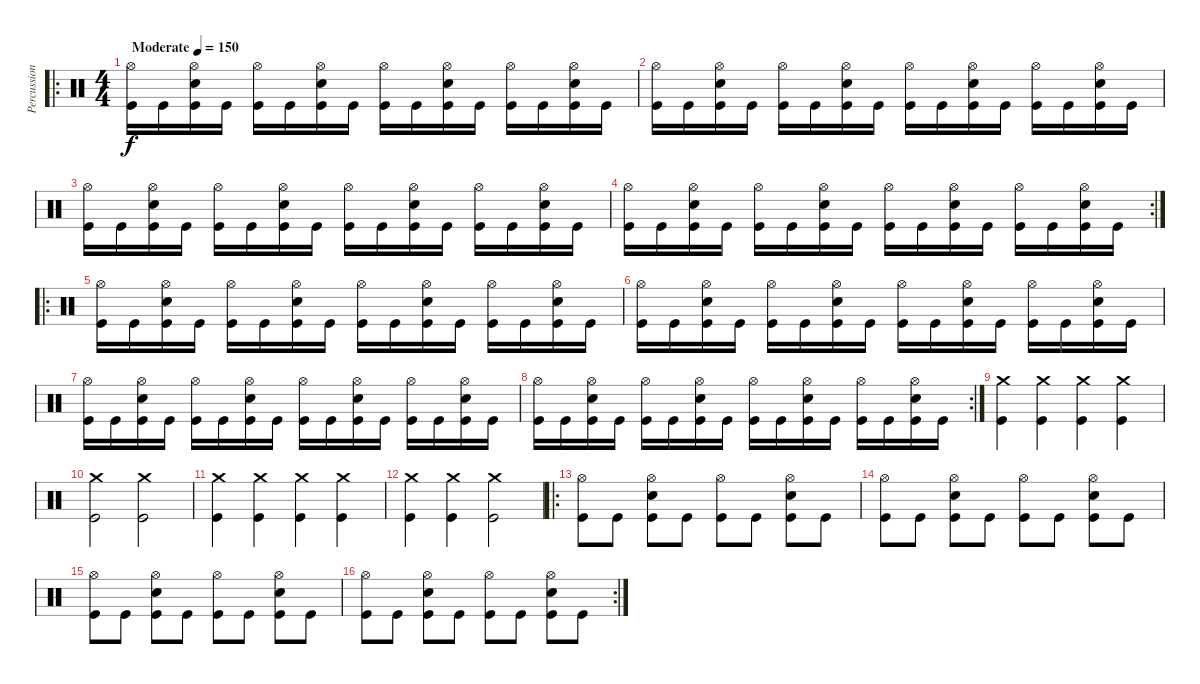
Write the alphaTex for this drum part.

\track ("Percussion" "Percussion") {instrument percussion}
\staff {score}
\articulation defaults
\ro
\ts (4 4)
\tempo (150 "Moderate")
\clef neutral
\ks c
("Hi-Hat (open)" "Kick (hit)").16{dy f} "Kick (hit)".16 ("Hi-Hat (open)" "Snare (hit) 2" "Kick (hit)").16 "Kick (hit)".16 ("Hi-Hat (open)" "Kick (hit)").16 "Kick (hit)".16 ("Hi-Hat (open)" "Snare (hit) 2" "Kick (hit)").16 "Kick (hit)".16 ("Hi-Hat (open)" "Kick (hit)").16 "Kick (hit)".16 ("Hi-Hat (open)" "Snare (hit) 2" "Kick (hit)").16 "Kick (hit)".16 ("Hi-Hat (open)" "Kick (hit)").16 "Kick (hit)".16 ("Hi-Hat (open)" "Snare (hit) 2" "Kick (hit)").16 "Kick (hit)".16 |
("Hi-Hat (open)" "Kick (hit)").16 "Kick (hit)".16 ("Hi-Hat (open)" "Snare (hit) 2" "Kick (hit)").16 "Kick (hit)".16 ("Hi-Hat (open)" "Kick (hit)").16 "Kick (hit)".16 ("Hi-Hat (open)" "Snare (hit) 2" "Kick (hit)").16 "Kick (hit)".16 ("Hi-Hat (open)" "Kick (hit)").16 "Kick (hit)".16 ("Hi-Hat (open)" "Snare (hit) 2" "Kick (hit)").16 "Kick (hit)".16 ("Hi-Hat (open)" "Kick (hit)").16 "Kick (hit)".16 ("Hi-Hat (open)" "Snare (hit) 2" "Kick (hit)").16 "Kick (hit)".16 |
("Hi-Hat (open)" "Kick (hit)").16 "Kick (hit)".16 ("Hi-Hat (open)" "Snare (hit) 2" "Kick (hit)").16 "Kick (hit)".16 ("Hi-Hat (open)" "Kick (hit)").16 "Kick (hit)".16 ("Hi-Hat (open)" "Snare (hit) 2" "Kick (hit)").16 "Kick (hit)".16 ("Hi-Hat (open)" "Kick (hit)").16 "Kick (hit)".16 ("Hi-Hat (open)" "Snare (hit) 2" "Kick (hit)").16 "Kick (hit)".16 ("Hi-Hat (open)" "Kick (hit)").16 "Kick (hit)".16 ("Hi-Hat (open)" "Snare (hit) 2" "Kick (hit)").16 "Kick (hit)".16 |
\rc 2
("Hi-Hat (open)" "Kick (hit)").16 "Kick (hit)".16 ("Hi-Hat (open)" "Snare (hit) 2" "Kick (hit)").16 "Kick (hit)".16 ("Hi-Hat (open)" "Kick (hit)").16 "Kick (hit)".16 ("Hi-Hat (open)" "Snare (hit) 2" "Kick (hit)").16 "Kick (hit)".16 ("Hi-Hat (open)" "Kick (hit)").16 "Kick (hit)".16 ("Hi-Hat (open)" "Snare (hit) 2" "Kick (hit)").16 "Kick (hit)".16 ("Hi-Hat (open)" "Kick (hit)").16 "Kick (hit)".16 ("Hi-Hat (open)" "Snare (hit) 2" "Kick (hit)").16 "Kick (hit)".16 |
\ro
("Hi-Hat (open)" "Kick (hit)").16 "Kick (hit)".16 ("Hi-Hat (open)" "Snare (hit) 2" "Kick (hit)").16 "Kick (hit)".16 ("Hi-Hat (open)" "Kick (hit)").16 "Kick (hit)".16 ("Hi-Hat (open)" "Snare (hit) 2" "Kick (hit)").16 "Kick (hit)".16 ("Hi-Hat (open)" "Kick (hit)").16 "Kick (hit)".16 ("Hi-Hat (open)" "Snare (hit) 2" "Kick (hit)").16 "Kick (hit)".16 ("Hi-Hat (open)" "Kick (hit)").16 "Kick (hit)".16 ("Hi-Hat (open)" "Snare (hit) 2" "Kick (hit)").16 "Kick (hit)".16 |
("Hi-Hat (open)" "Kick (hit)").16 "Kick (hit)".16 ("Hi-Hat (open)" "Snare (hit) 2" "Kick (hit)").16 "Kick (hit)".16 ("Hi-Hat (open)" "Kick (hit)").16 "Kick (hit)".16 ("Hi-Hat (open)" "Snare (hit) 2" "Kick (hit)").16 "Kick (hit)".16 ("Hi-Hat (open)" "Kick (hit)").16 "Kick (hit)".16 ("Hi-Hat (open)" "Snare (hit) 2" "Kick (hit)").16 "Kick (hit)".16 ("Hi-Hat (open)" "Kick (hit)").16 "Kick (hit)".16 ("Hi-Hat (open)" "Snare (hit) 2" "Kick (hit)").16 "Kick (hit)".16 |
("Hi-Hat (open)" "Kick (hit)").16 "Kick (hit)".16 ("Hi-Hat (open)" "Snare (hit) 2" "Kick (hit)").16 "Kick (hit)".16 ("Hi-Hat (open)" "Kick (hit)").16 "Kick (hit)".16 ("Hi-Hat (open)" "Snare (hit) 2" "Kick (hit)").16 "Kick (hit)".16 ("Hi-Hat (open)" "Kick (hit)").16 "Kick (hit)".16 ("Hi-Hat (open)" "Snare (hit) 2" "Kick (hit)").16 "Kick (hit)".16 ("Hi-Hat (open)" "Kick (hit)").16 "Kick (hit)".16 ("Hi-Hat (open)" "Snare (hit) 2" "Kick (hit)").16 "Kick (hit)".16 |
\rc 2
("Hi-Hat (open)" "Kick (hit)").16 "Kick (hit)".16 ("Hi-Hat (open)" "Snare (hit) 2" "Kick (hit)").16 "Kick (hit)".16 ("Hi-Hat (open)" "Kick (hit)").16 "Kick (hit)".16 ("Hi-Hat (open)" "Snare (hit) 2" "Kick (hit)").16 "Kick (hit)".16 ("Hi-Hat (open)" "Kick (hit)").16 "Kick (hit)".16 ("Hi-Hat (open)" "Snare (hit) 2" "Kick (hit)").16 "Kick (hit)".16 ("Hi-Hat (open)" "Kick (hit)").16 "Kick (hit)".16 ("Hi-Hat (open)" "Snare (hit) 2" "Kick (hit)").16 "Kick (hit)".16 |
("Crash medium (hit)" "Kick (hit)").4 ("Crash medium (hit)" "Kick (hit)").4 ("Crash medium (hit)" "Kick (hit)").4 ("Crash medium (hit)" "Kick (hit)").4 |
("Crash medium (hit)" "Kick (hit)").2 ("Crash medium (hit)" "Kick (hit)").2 |
("Crash medium (hit)" "Kick (hit)").4 ("Crash medium (hit)" "Kick (hit)").4 ("Crash medium (hit)" "Kick (hit)").4 ("Crash medium (hit)" "Kick (hit)").4 |
("Crash medium (hit)" "Kick (hit)").4 ("Crash medium (hit)" "Kick (hit)").4 ("Crash medium (hit)" "Kick (hit)").2 |
\ro
("Hi-Hat (open)" "Kick (hit)").8 "Kick (hit)".8 ("Hi-Hat (open)" "Snare (hit) 2" "Kick (hit)").8 "Kick (hit)".8 ("Hi-Hat (open)" "Kick (hit)").8 "Kick (hit)".8 ("Hi-Hat (open)" "Snare (hit) 2" "Kick (hit)").8 "Kick (hit)".8 |
("Hi-Hat (open)" "Kick (hit)").8 "Kick (hit)".8 ("Hi-Hat (open)" "Snare (hit) 2" "Kick (hit)").8 "Kick (hit)".8 ("Hi-Hat (open)" "Kick (hit)").8 "Kick (hit)".8 ("Hi-Hat (open)" "Snare (hit) 2" "Kick (hit)").8 "Kick (hit)".8 |
("Hi-Hat (open)" "Kick (hit)").8 "Kick (hit)".8 ("Hi-Hat (open)" "Snare (hit) 2" "Kick (hit)").8 "Kick (hit)".8 ("Hi-Hat (open)" "Kick (hit)").8 "Kick (hit)".8 ("Hi-Hat (open)" "Snare (hit) 2" "Kick (hit)").8 "Kick (hit)".8 |
\rc 2
("Hi-Hat (open)" "Kick (hit)").8 "Kick (hit)".8 ("Hi-Hat (open)" "Snare (hit) 2" "Kick (hit)").8 "Kick (hit)".8 ("Hi-Hat (open)" "Kick (hit)").8 "Kick (hit)".8 ("Hi-Hat (open)" "Snare (hit) 2" "Kick (hit)").8 "Kick (hit)".8
